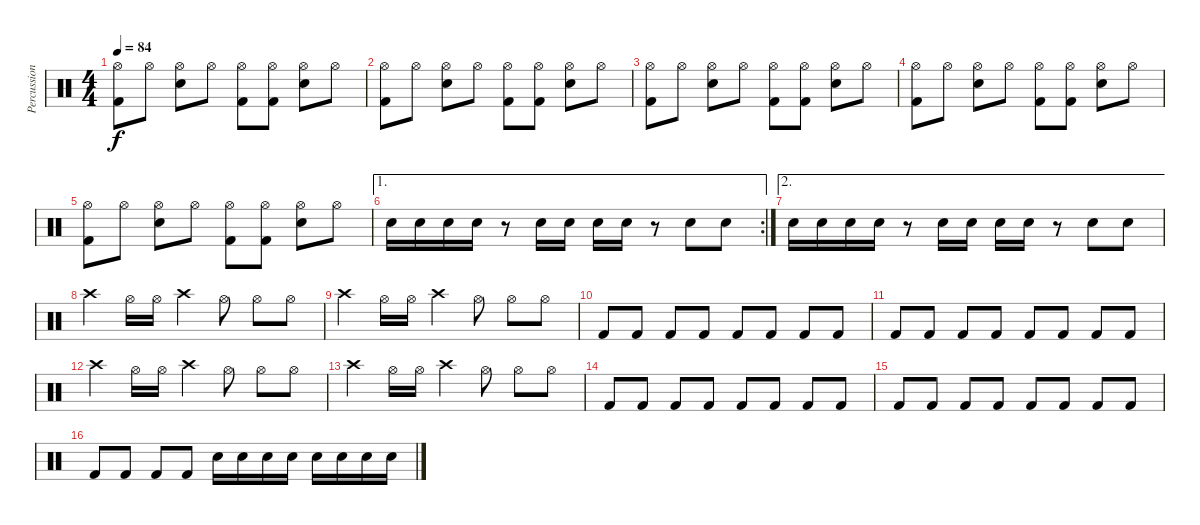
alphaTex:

\track ("Percussion" "Percussion") {instrument percussion}
\staff {score}
\articulation defaults
\ts (4 4)
\tempo 84
\clef neutral
\ks c
("Kick (hit) 2" "Hi-Hat (open)").8{dy f} "Hi-Hat (open)".8 ("Electric Snare (hit)" "Hi-Hat (open)").8 "Hi-Hat (open)".8 ("Kick (hit) 2" "Hi-Hat (open)").8 ("Kick (hit) 2" "Hi-Hat (open)").8 ("Electric Snare (hit)" "Hi-Hat (open)").8 "Hi-Hat (open)".8 |
("Kick (hit) 2" "Hi-Hat (open)").8 "Hi-Hat (open)".8 ("Electric Snare (hit)" "Hi-Hat (open)").8 "Hi-Hat (open)".8 ("Kick (hit) 2" "Hi-Hat (open)").8 ("Kick (hit) 2" "Hi-Hat (open)").8 ("Electric Snare (hit)" "Hi-Hat (open)").8 "Hi-Hat (open)".8 |
("Kick (hit) 2" "Hi-Hat (open)").8 "Hi-Hat (open)".8 ("Electric Snare (hit)" "Hi-Hat (open)").8 "Hi-Hat (open)".8 ("Kick (hit) 2" "Hi-Hat (open)").8 ("Kick (hit) 2" "Hi-Hat (open)").8 ("Electric Snare (hit)" "Hi-Hat (open)").8 "Hi-Hat (open)".8 |
("Kick (hit) 2" "Hi-Hat (open)").8 "Hi-Hat (open)".8 ("Electric Snare (hit)" "Hi-Hat (open)").8 "Hi-Hat (open)".8 ("Kick (hit) 2" "Hi-Hat (open)").8 ("Kick (hit) 2" "Hi-Hat (open)").8 ("Electric Snare (hit)" "Hi-Hat (open)").8 "Hi-Hat (open)".8 |
("Kick (hit) 2" "Hi-Hat (open)").8 "Hi-Hat (open)".8 ("Electric Snare (hit)" "Hi-Hat (open)").8 "Hi-Hat (open)".8 ("Kick (hit) 2" "Hi-Hat (open)").8 ("Kick (hit) 2" "Hi-Hat (open)").8 ("Electric Snare (hit)" "Hi-Hat (open)").8 "Hi-Hat (open)".8 |
\ae 1
\rc 2 "Electric Snare (hit)".16 "Electric Snare (hit)".16 "Electric Snare (hit)".16 "Electric Snare (hit)".16
r.8 "Electric Snare (hit)".16 "Electric Snare (hit)".16 "Electric Snare (hit)".16 "Electric Snare (hit)".16 r.8 "Electric Snare (hit)".8 "Electric Snare (hit)".8 |
\ae 2 "Electric Snare (hit)".16 "Electric Snare (hit)".16 "Electric Snare (hit)".16 "Electric Snare (hit)".16
r.8 "Electric Snare (hit)".16 "Electric Snare (hit)".16 "Electric Snare (hit)".16 "Electric Snare (hit)".16 r.8 "Electric Snare (hit)".8 "Electric Snare (hit)".8 |
"Crash high (hit)".4 "Hi-Hat (open)".16 "Hi-Hat (open)".16 "Crash high (hit)".4 "Hi-Hat (open)".8 "Hi-Hat (open)".8 "Hi-Hat (open)".8 |
"Crash high (hit)".4 "Hi-Hat (open)".16 "Hi-Hat (open)".16 "Crash high (hit)".4 "Hi-Hat (open)".8 "Hi-Hat (open)".8 "Hi-Hat (open)".8 |
"Kick (hit) 2".8 "Kick (hit) 2".8 "Kick (hit) 2".8 "Kick (hit) 2".8 "Kick (hit) 2".8 "Kick (hit) 2".8 "Kick (hit) 2".8 "Kick (hit) 2".8 |
"Kick (hit) 2".8 "Kick (hit) 2".8 "Kick (hit) 2".8 "Kick (hit) 2".8 "Kick (hit) 2".8 "Kick (hit) 2".8 "Kick (hit) 2".8 "Kick (hit) 2".8 |
"Crash high (hit)".4 "Hi-Hat (open)".16 "Hi-Hat (open)".16 "Crash high (hit)".4 "Hi-Hat (open)".8 "Hi-Hat (open)".8 "Hi-Hat (open)".8 |
"Crash high (hit)".4 "Hi-Hat (open)".16 "Hi-Hat (open)".16 "Crash high (hit)".4 "Hi-Hat (open)".8 "Hi-Hat (open)".8 "Hi-Hat (open)".8 |
"Kick (hit) 2".8 "Kick (hit) 2".8 "Kick (hit) 2".8 "Kick (hit) 2".8 "Kick (hit) 2".8 "Kick (hit) 2".8 "Kick (hit) 2".8 "Kick (hit) 2".8 |
"Kick (hit) 2".8 "Kick (hit) 2".8 "Kick (hit) 2".8 "Kick (hit) 2".8 "Kick (hit) 2".8 "Kick (hit) 2".8 "Kick (hit) 2".8 "Kick (hit) 2".8 |
"Kick (hit) 2".8 "Kick (hit) 2".8 "Kick (hit) 2".8 "Kick (hit) 2".8 "Electric Snare (hit)".16 "Electric Snare (hit)".16 "Electric Snare (hit)".16 "Electric Snare (hit)".16 "Electric Snare (hit)".16 "Electric Snare (hit)".16 "Electric Snare (hit)".16 "Electric Snare (hit)".16
